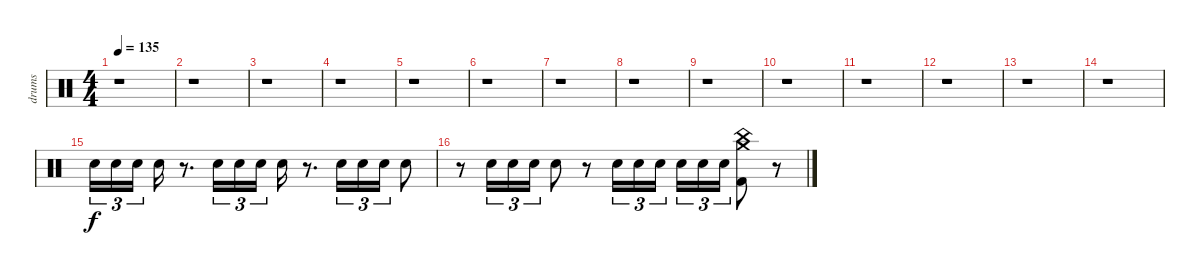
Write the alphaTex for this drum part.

\track ("drums" "drums") {instrument percussion}
\staff {score}
\articulation defaults
\ts (4 4)
\tempo 135
\clef neutral
\ks c
r.1{dy f} |
r.1 |
r.1 |
r.1 |
r.1 |
r.1 |
r.1 |
r.1 |
r.1 |
r.1 |
r.1 |
r.1 |
r.1 |
r.1 |
"Electric Snare (hit)".16{tu (3 2)} "Electric Snare (hit)".16{tu (3 2)} "Electric Snare (hit)".16{tu (3 2) beam splitsecondary} "Electric Snare (hit)".16 r.8{d} "Electric Snare (hit)".16{tu (3 2)} "Electric Snare (hit)".16{tu (3 2)} "Electric Snare (hit)".16{tu (3 2)} "Electric Snare (hit)".16 r.8{d} "Electric Snare (hit)".16{tu (3 2)} "Electric Snare (hit)".16{tu (3 2)} "Electric Snare (hit)".16{tu (3 2)} "Electric Snare (hit)".8 |
r.8 "Electric Snare (hit)".16{tu (3 2)} "Electric Snare (hit)".16{tu (3 2)} "Electric Snare (hit)".16{tu (3 2)} "Electric Snare (hit)".8 r.8 "Electric Snare (hit)".16{tu (3 2)} "Electric Snare (hit)".16{tu (3 2)} "Electric Snare (hit)".16{tu (3 2) beam splitsecondary} "Electric Snare (hit)".16{tu (3 2)} "Electric Snare (hit)".16{tu (3 2)} "Electric Snare (hit)".16{tu (3 2)} ("Crash medium (hit)" "China (hit)" "Kick (hit) 2").8 r.8
